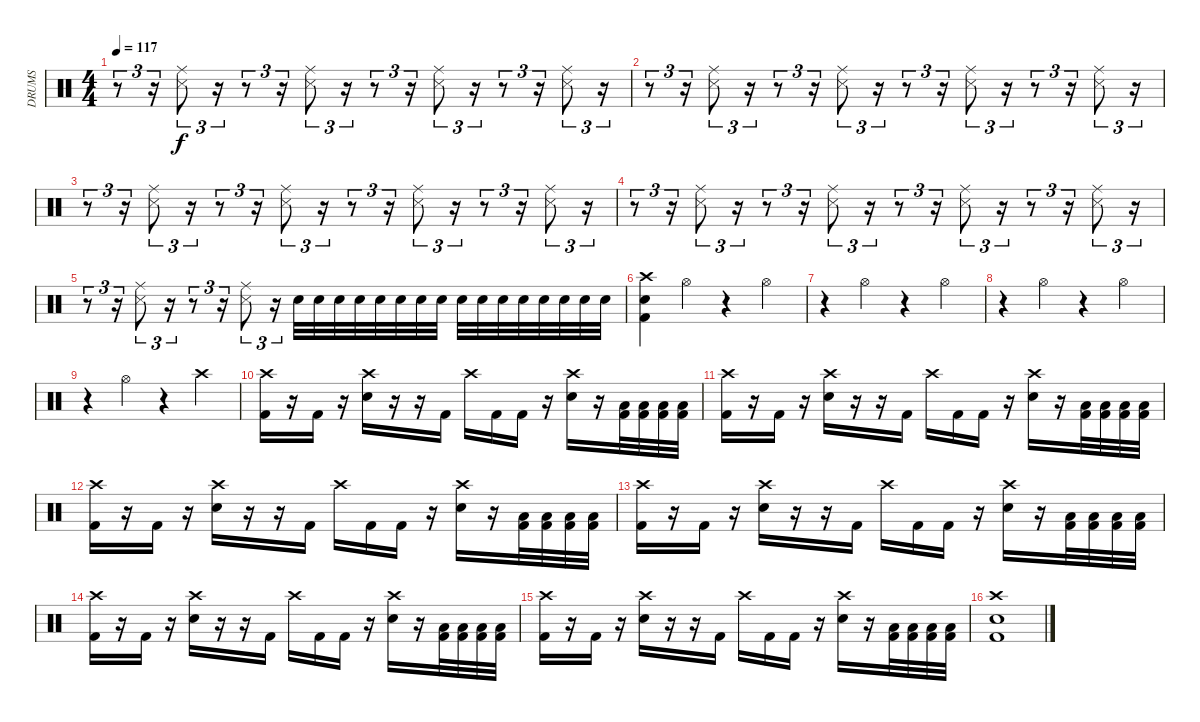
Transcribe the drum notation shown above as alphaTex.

\track ("DRUMS" "DRUMS") {instrument percussion}
\staff {score}
\articulation defaults
\ts (4 4)
\tempo 117
\clef neutral
\ks c
r.8{tu (3 2) dy f} r.16{tu (3 2)} ("Ride (middle)" "Snare (side stick) 3").8{tu (3 2)} r.16{tu (3 2)} r.8{tu (3 2)} r.16{tu (3 2)} ("Ride (middle)" "Snare (side stick) 3").8{tu (3 2)} r.16{tu (3 2)} r.8{tu (3 2)} r.16{tu (3 2)} ("Ride (middle)" "Snare (side stick) 3").8{tu (3 2)} r.16{tu (3 2)} r.8{tu (3 2)} r.16{tu (3 2)} ("Ride (middle)" "Snare (side stick) 3").8{tu (3 2)} r.16{tu (3 2)} |
r.8{tu (3 2)} r.16{tu (3 2)} ("Ride (middle)" "Snare (side stick) 3").8{tu (3 2)} r.16{tu (3 2)} r.8{tu (3 2)} r.16{tu (3 2)} ("Ride (middle)" "Snare (side stick) 3").8{tu (3 2)} r.16{tu (3 2)} r.8{tu (3 2)} r.16{tu (3 2)} ("Ride (middle)" "Snare (side stick) 3").8{tu (3 2)} r.16{tu (3 2)} r.8{tu (3 2)} r.16{tu (3 2)} ("Ride (middle)" "Snare (side stick) 3").8{tu (3 2)} r.16{tu (3 2)} |
r.8{tu (3 2)} r.16{tu (3 2)} ("Ride (middle)" "Snare (side stick) 3").8{tu (3 2)} r.16{tu (3 2)} r.8{tu (3 2)} r.16{tu (3 2)} ("Ride (middle)" "Snare (side stick) 3").8{tu (3 2)} r.16{tu (3 2)} r.8{tu (3 2)} r.16{tu (3 2)} ("Ride (middle)" "Snare (side stick) 3").8{tu (3 2)} r.16{tu (3 2)} r.8{tu (3 2)} r.16{tu (3 2)} ("Ride (middle)" "Snare (side stick) 3").8{tu (3 2)} r.16{tu (3 2)} |
r.8{tu (3 2)} r.16{tu (3 2)} ("Ride (middle)" "Snare (side stick) 3").8{tu (3 2)} r.16{tu (3 2)} r.8{tu (3 2)} r.16{tu (3 2)} ("Ride (middle)" "Snare (side stick) 3").8{tu (3 2)} r.16{tu (3 2)} r.8{tu (3 2)} r.16{tu (3 2)} ("Ride (middle)" "Snare (side stick) 3").8{tu (3 2)} r.16{tu (3 2)} r.8{tu (3 2)} r.16{tu (3 2)} ("Ride (middle)" "Snare (side stick) 3").8{tu (3 2)} r.16{tu (3 2)} |
r.8{tu (3 2)} r.16{tu (3 2)} ("Ride (middle)" "Snare (side stick) 3").8{tu (3 2)} r.16{tu (3 2)} r.8{tu (3 2)} r.16{tu (3 2)} ("Ride (middle)" "Snare (side stick) 3").8{tu (3 2)} r.16{tu (3 2)} "Electric Snare (hit)".32 "Electric Snare (hit)".32 "Electric Snare (hit)".32 "Electric Snare (hit)".32 "Electric Snare (hit)".32 "Electric Snare (hit)".32 "Electric Snare (hit)".32 "Electric Snare (hit)".32 "Electric Snare (hit)".32 "Electric Snare (hit)".32 "Electric Snare (hit)".32 "Electric Snare (hit)".32 "Electric Snare (hit)".32 "Electric Snare (hit)".32 "Electric Snare (hit)".32 "Electric Snare (hit)".32 |
("Kick (hit) 2" "Crash high (hit)" "Electric Snare (hit)").4 "Hi-Hat (open)".4 r.4 "Hi-Hat (open)".4 |
r.4 "Hi-Hat (open)".4 r.4 "Hi-Hat (open)".4 |
r.4 "Hi-Hat (open)".4 r.4 "Hi-Hat (open)".4 |
r.4 "Hi-Hat (open)".4 r.4 "Crash high (hit)".4 |
("Crash high (hit)" "Kick (hit) 2").16 r.16 "Kick (hit) 2".16 r.16 ("Crash high (hit)" "Electric Snare (hit)").16 r.16 r.16 "Kick (hit) 2".16 "Crash high (hit)".16 "Kick (hit) 2".16 "Kick (hit) 2".16 r.16 ("Crash high (hit)" "Electric Snare (hit)").16 r.16 ("Low Tom (hit)" "Kick (hit) 2").32 ("Low Tom (hit)" "Kick (hit) 2").32 ("Low Tom (hit)" "Kick (hit) 2").32 ("Low Tom (hit)" "Kick (hit) 2").32 |
("Crash high (hit)" "Kick (hit) 2").16 r.16 "Kick (hit) 2".16 r.16 ("Crash high (hit)" "Electric Snare (hit)").16 r.16 r.16 "Kick (hit) 2".16 "Crash high (hit)".16 "Kick (hit) 2".16 "Kick (hit) 2".16 r.16 ("Crash high (hit)" "Electric Snare (hit)").16 r.16 ("Low Tom (hit)" "Kick (hit) 2").32 ("Low Tom (hit)" "Kick (hit) 2").32 ("Low Tom (hit)" "Kick (hit) 2").32 ("Low Tom (hit)" "Kick (hit) 2").32 |
("Crash high (hit)" "Kick (hit) 2").16 r.16 "Kick (hit) 2".16 r.16 ("Crash high (hit)" "Electric Snare (hit)").16 r.16 r.16 "Kick (hit) 2".16 "Crash high (hit)".16 "Kick (hit) 2".16 "Kick (hit) 2".16 r.16 ("Crash high (hit)" "Electric Snare (hit)").16 r.16 ("Low Tom (hit)" "Kick (hit) 2").32 ("Low Tom (hit)" "Kick (hit) 2").32 ("Low Tom (hit)" "Kick (hit) 2").32 ("Low Tom (hit)" "Kick (hit) 2").32 |
("Crash high (hit)" "Kick (hit) 2").16 r.16 "Kick (hit) 2".16 r.16 ("Crash high (hit)" "Electric Snare (hit)").16 r.16 r.16 "Kick (hit) 2".16 "Crash high (hit)".16 "Kick (hit) 2".16 "Kick (hit) 2".16 r.16 ("Crash high (hit)" "Electric Snare (hit)").16 r.16 ("Low Tom (hit)" "Kick (hit) 2").32 ("Low Tom (hit)" "Kick (hit) 2").32 ("Low Tom (hit)" "Kick (hit) 2").32 ("Low Tom (hit)" "Kick (hit) 2").32 |
("Crash high (hit)" "Kick (hit) 2").16 r.16 "Kick (hit) 2".16 r.16 ("Crash high (hit)" "Electric Snare (hit)").16 r.16 r.16 "Kick (hit) 2".16 "Crash high (hit)".16 "Kick (hit) 2".16 "Kick (hit) 2".16 r.16 ("Crash high (hit)" "Electric Snare (hit)").16 r.16 ("Low Tom (hit)" "Kick (hit) 2").32 ("Low Tom (hit)" "Kick (hit) 2").32 ("Low Tom (hit)" "Kick (hit) 2").32 ("Low Tom (hit)" "Kick (hit) 2").32 |
("Crash high (hit)" "Kick (hit) 2").16 r.16 "Kick (hit) 2".16 r.16 ("Crash high (hit)" "Electric Snare (hit)").16 r.16 r.16 "Kick (hit) 2".16 "Crash high (hit)".16 "Kick (hit) 2".16 "Kick (hit) 2".16 r.16 ("Crash high (hit)" "Electric Snare (hit)").16 r.16 ("Low Tom (hit)" "Kick (hit) 2").32 ("Low Tom (hit)" "Kick (hit) 2").32 ("Low Tom (hit)" "Kick (hit) 2").32 ("Low Tom (hit)" "Kick (hit) 2").32 |
("Electric Snare (hit)" "Kick (hit) 2" "Crash high (hit)").1
